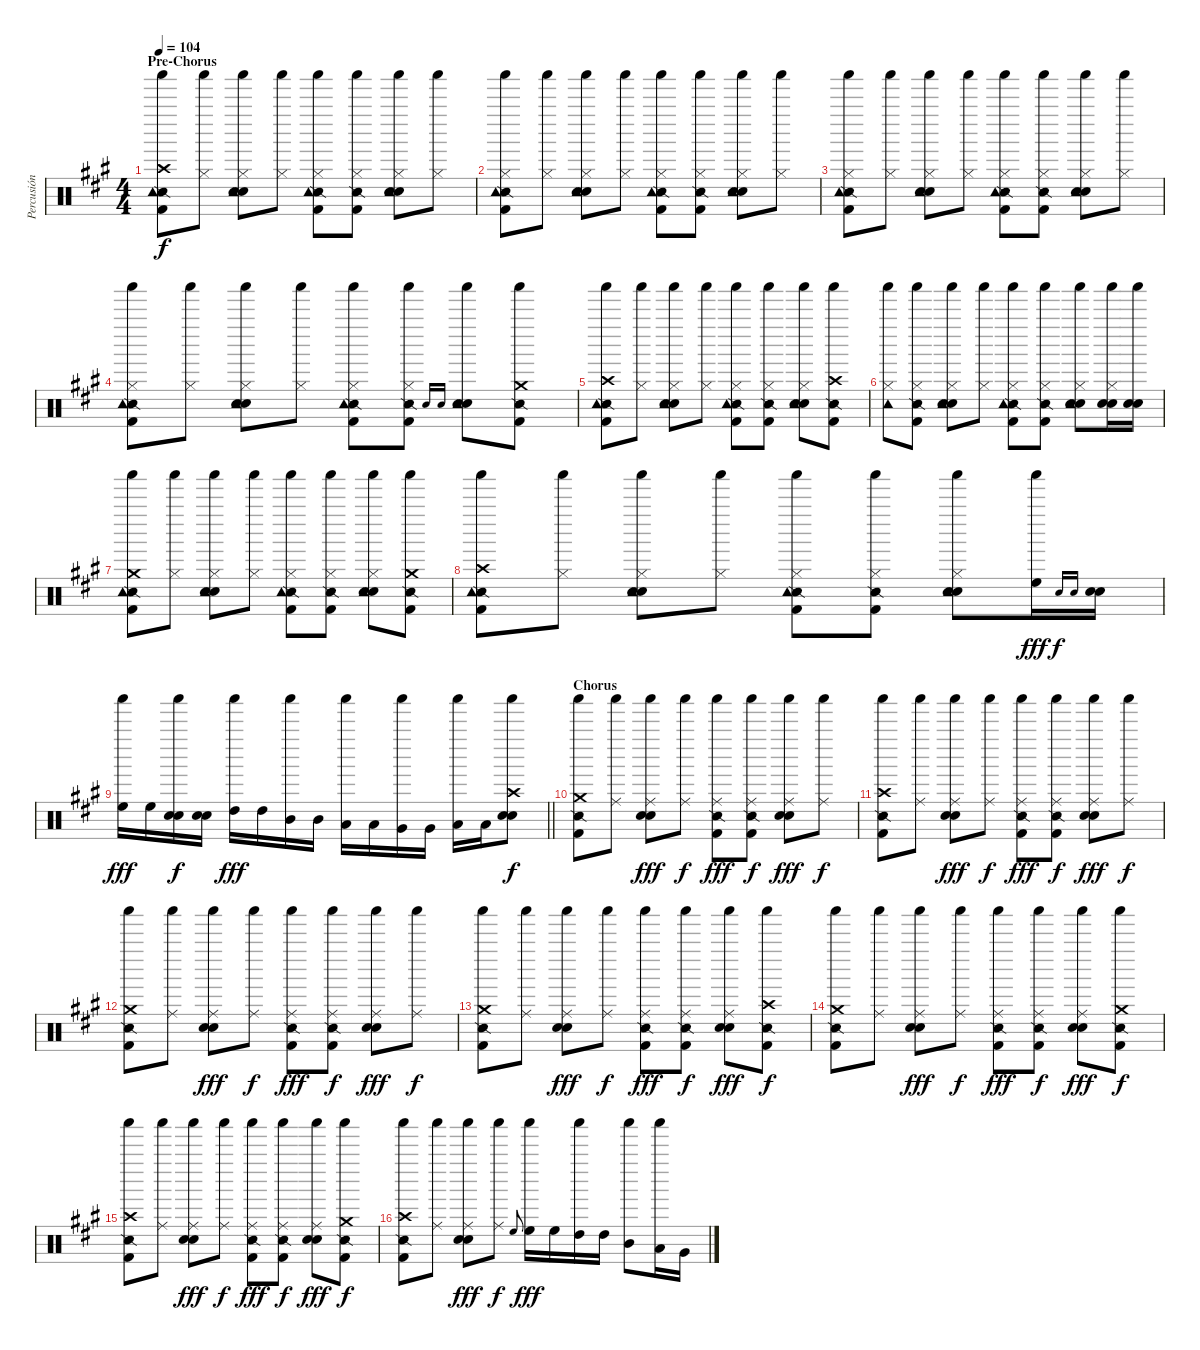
\track ("Percusión" "Percusión") {instrument percussion}
\staff {score}
\articulation defaults
\ts (4 4)
\section ("" "Pre-Chorus")
\tempo 104
\clef neutral
\ks a
("Crash high (hit)" "Kick (hit) 2" "Snare (side stick) 2" "Tambourine (hit)" "Shaker (hit)").8{dy f} ("Hi-Hat (closed)" "Shaker (hit)").8 ("Hi-Hat (closed)" "Snare (hit) 2" "Electric Snare (hit)" "Tambourine (hit)" "Shaker (hit)").8 ("Hi-Hat (closed)" "Shaker (hit)").8 ("Hi-Hat (closed)" "Kick (hit) 2" "Snare (side stick) 2" "Tambourine (hit)" "Shaker (hit)").8 ("Hi-Hat (closed)" "Kick (hit) 2" "Snare (side stick) 2" "Shaker (hit)").8 ("Hi-Hat (closed)" "Snare (hit) 2" "Electric Snare (hit)" "Tambourine (hit)" "Shaker (hit)").8 ("Hi-Hat (closed)" "Shaker (hit)").8 |
("Hi-Hat (closed)" "Kick (hit) 2" "Snare (side stick) 2" "Tambourine (hit)" "Shaker (hit)").8 ("Hi-Hat (closed)" "Shaker (hit)").8 ("Hi-Hat (closed)" "Snare (hit) 2" "Electric Snare (hit)" "Tambourine (hit)" "Shaker (hit)").8 ("Hi-Hat (closed)" "Shaker (hit)").8 ("Hi-Hat (closed)" "Kick (hit) 2" "Snare (side stick) 2" "Tambourine (hit)" "Shaker (hit)").8 ("Hi-Hat (closed)" "Kick (hit) 2" "Snare (side stick) 2" "Shaker (hit)").8 ("Hi-Hat (closed)" "Snare (hit) 2" "Electric Snare (hit)" "Tambourine (hit)" "Shaker (hit)").8 ("Hi-Hat (closed)" "Shaker (hit)").8 |
("Hi-Hat (closed)" "Kick (hit) 2" "Snare (side stick) 2" "Tambourine (hit)" "Shaker (hit)").8 ("Hi-Hat (closed)" "Shaker (hit)").8 ("Hi-Hat (closed)" "Snare (hit) 2" "Electric Snare (hit)" "Tambourine (hit)" "Shaker (hit)").8 ("Hi-Hat (closed)" "Shaker (hit)").8 ("Hi-Hat (closed)" "Kick (hit) 2" "Snare (side stick) 2" "Tambourine (hit)" "Shaker (hit)").8 ("Hi-Hat (closed)" "Kick (hit) 2" "Snare (side stick) 2" "Shaker (hit)").8 ("Hi-Hat (closed)" "Snare (hit) 2" "Electric Snare (hit)" "Tambourine (hit)" "Shaker (hit)").8 ("Hi-Hat (closed)" "Shaker (hit)").8 |
("Hi-Hat (closed)" "Kick (hit) 2" "Snare (side stick) 2" "Tambourine (hit)" "Shaker (hit)").8 ("Hi-Hat (closed)" "Shaker (hit)").8 ("Hi-Hat (closed)" "Snare (hit) 2" "Electric Snare (hit)" "Tambourine (hit)" "Shaker (hit)").8 ("Hi-Hat (closed)" "Shaker (hit)").8 ("Hi-Hat (closed)" "Kick (hit) 2" "Snare (side stick) 2" "Tambourine (hit)" "Shaker (hit)").8 ("Hi-Hat (closed)" "Kick (hit) 2" "Snare (side stick) 2" "Shaker (hit)").8 "Snare (hit) 2".16{gr onbeat} "Electric Snare (hit)".16{gr onbeat} ("Snare (hit) 2" "Electric Snare (hit)" "Tambourine (hit)" "Shaker (hit)").8 ("Crash medium (hit)" "Kick (hit) 2" "Snare (side stick) 2" "Shaker (hit)").8 |
("Crash high (hit)" "Kick (hit) 2" "Snare (side stick) 2" "Tambourine (hit)" "Shaker (hit)").8 ("Hi-Hat (closed)" "Shaker (hit)").8 ("Hi-Hat (closed)" "Snare (hit) 2" "Electric Snare (hit)" "Tambourine (hit)" "Shaker (hit)").8 ("Hi-Hat (closed)" "Shaker (hit)").8 ("Hi-Hat (closed)" "Kick (hit) 2" "Snare (side stick) 2" "Tambourine (hit)" "Shaker (hit)").8 ("Hi-Hat (closed)" "Kick (hit) 2" "Snare (side stick) 2" "Shaker (hit)").8 ("Hi-Hat (closed)" "Snare (hit) 2" "Electric Snare (hit)" "Tambourine (hit)" "Shaker (hit)").8 ("Crash high (hit)" "Kick (hit) 2" "Snare (side stick) 2" "Shaker (hit)").8 |
("Hi-Hat (closed)" "Tambourine (hit)" "Shaker (hit)").8 ("Hi-Hat (closed)" "Kick (hit) 2" "Snare (side stick) 2" "Shaker (hit)").8 ("Hi-Hat (closed)" "Snare (hit) 2" "Electric Snare (hit)" "Tambourine (hit)" "Shaker (hit)").8 ("Hi-Hat (closed)" "Shaker (hit)").8 ("Hi-Hat (closed)" "Kick (hit) 2" "Snare (side stick) 2" "Tambourine (hit)" "Shaker (hit)").8 ("Hi-Hat (closed)" "Kick (hit) 2" "Snare (side stick) 2" "Shaker (hit)").8 ("Hi-Hat (closed)" "Snare (hit) 2" "Electric Snare (hit)" "Tambourine (hit)" "Shaker (hit)").8 ("Hi-Hat (closed)" "Snare (hit) 2" "Electric Snare (hit)" "Shaker (hit)").16 ("Snare (hit) 2" "Electric Snare (hit)" "Shaker (hit)").16 |
("Crash medium (hit)" "Kick (hit) 2" "Snare (side stick) 2" "Tambourine (hit)" "Shaker (hit)").8 ("Hi-Hat (closed)" "Shaker (hit)").8 ("Hi-Hat (closed)" "Snare (hit) 2" "Electric Snare (hit)" "Tambourine (hit)" "Shaker (hit)").8 ("Hi-Hat (closed)" "Shaker (hit)").8 ("Hi-Hat (closed)" "Kick (hit) 2" "Snare (side stick) 2" "Tambourine (hit)" "Shaker (hit)").8 ("Hi-Hat (closed)" "Kick (hit) 2" "Snare (side stick) 2" "Shaker (hit)").8 ("Hi-Hat (closed)" "Snare (hit) 2" "Electric Snare (hit)" "Tambourine (hit)" "Shaker (hit)").8 ("Crash medium (hit)" "Kick (hit) 2" "Snare (side stick) 2" "Shaker (hit)").8 |
("Crash high (hit)" "Kick (hit) 2" "Snare (side stick) 2" "Tambourine (hit)" "Shaker (hit)").8 ("Hi-Hat (closed)" "Shaker (hit)").8 ("Hi-Hat (closed)" "Snare (hit) 2" "Electric Snare (hit)" "Tambourine (hit)" "Shaker (hit)").8 ("Hi-Hat (closed)" "Shaker (hit)").8 ("Hi-Hat (closed)" "Kick (hit) 2" "Snare (side stick) 2" "Tambourine (hit)" "Shaker (hit)").8 ("Hi-Hat (closed)" "Kick (hit) 2" "Snare (side stick) 2" "Shaker (hit)").8 ("Hi-Hat (closed)" "Snare (hit) 2" "Electric Snare (hit)" "Tambourine (hit)" "Shaker (hit)").8 ("High Floor Tom (hit)" "Shaker (hit)").16{dy fff} "Snare (hit) 2".16{gr onbeat dy f} "Electric Snare (hit)".16{gr onbeat} ("Snare (hit) 2" "Electric Snare (hit)").16 |
\barLineRight lightlight
("High Floor Tom (hit)" "Shaker (hit)").16{dy fff} "High Floor Tom (hit)".16 ("Snare (hit) 2" "Electric Snare (hit)" "Shaker (hit)").16{dy f} ("Snare (hit) 2" "Electric Snare (hit)").16 ("High Tom (hit)" "Shaker (hit)").16{dy fff} "High Tom (hit)".16 ("Mid Tom (hit)" "Shaker (hit)").16 "Mid Tom (hit)".16 ("Low Tom (hit)" "Shaker (hit)").16 "Low Tom (hit)".16 ("Very Low Tom (hit)" "Shaker (hit)").16 "Very Low Tom (hit)".16 ("Low Floor Tom (hit)" "Shaker (hit)").16 "Low Floor Tom (hit)".16 ("Crash high (hit)" "Snare (hit) 2" "Electric Snare (hit)" "Shaker (hit)").8{dy f} |
\section ("" "Chorus")
("Crash medium (hit)" "Kick (hit) 2" "Snare (side stick) 2" "Shaker (hit)").8 ("Ride (middle)" "Shaker (hit)").8 ("Ride (middle)" "Snare (hit) 2" "Electric Snare (hit)" "Shaker (hit)").8{dy fff} ("Ride (middle)" "Shaker (hit)").8{dy f} ("Ride (middle)" "Kick (hit) 2" "Snare (side stick) 2" "Shaker (hit)").8{dy fff} ("Ride (middle)" "Kick (hit) 2" "Snare (side stick) 2" "Shaker (hit)").8{dy f} ("Ride (middle)" "Snare (hit) 2" "Electric Snare (hit)" "Shaker (hit)").8{dy fff} ("Ride (middle)" "Shaker (hit)").8{dy f} |
("Crash high (hit)" "Kick (hit) 2" "Snare (side stick) 2" "Shaker (hit)").8 ("Ride (middle)" "Shaker (hit)").8 ("Ride (middle)" "Snare (hit) 2" "Electric Snare (hit)" "Shaker (hit)").8{dy fff} ("Ride (middle)" "Shaker (hit)").8{dy f} ("Ride (middle)" "Kick (hit) 2" "Snare (side stick) 2" "Shaker (hit)").8{dy fff} ("Ride (middle)" "Kick (hit) 2" "Snare (side stick) 2" "Shaker (hit)").8{dy f} ("Ride (middle)" "Snare (hit) 2" "Electric Snare (hit)" "Shaker (hit)").8{dy fff} ("Ride (middle)" "Shaker (hit)").8{dy f} |
("Crash medium (hit)" "Kick (hit) 2" "Snare (side stick) 2" "Shaker (hit)").8 ("Ride (middle)" "Shaker (hit)").8 ("Ride (middle)" "Snare (hit) 2" "Electric Snare (hit)" "Shaker (hit)").8{dy fff} ("Ride (middle)" "Shaker (hit)").8{dy f} ("Ride (middle)" "Kick (hit) 2" "Snare (side stick) 2" "Shaker (hit)").8{dy fff} ("Ride (middle)" "Kick (hit) 2" "Snare (side stick) 2" "Shaker (hit)").8{dy f} ("Ride (middle)" "Snare (hit) 2" "Electric Snare (hit)" "Shaker (hit)").8{dy fff} ("Ride (middle)" "Shaker (hit)").8{dy f} |
("Crash medium (hit)" "Kick (hit) 2" "Snare (side stick) 2" "Shaker (hit)").8 ("Ride (middle)" "Shaker (hit)").8 ("Ride (middle)" "Snare (hit) 2" "Electric Snare (hit)" "Shaker (hit)").8{dy fff} ("Ride (middle)" "Shaker (hit)").8{dy f} ("Ride (middle)" "Kick (hit) 2" "Snare (side stick) 2" "Shaker (hit)").8{dy fff} ("Ride (middle)" "Kick (hit) 2" "Snare (side stick) 2" "Shaker (hit)").8{dy f} ("Ride (middle)" "Snare (hit) 2" "Electric Snare (hit)" "Shaker (hit)").8{dy fff} ("Crash high (hit)" "Kick (hit) 2" "Snare (side stick) 2" "Shaker (hit)").8{dy f} |
("Crash medium (hit)" "Kick (hit) 2" "Snare (side stick) 2" "Shaker (hit)").8 ("Ride (middle)" "Shaker (hit)").8 ("Ride (middle)" "Snare (hit) 2" "Electric Snare (hit)" "Shaker (hit)").8{dy fff} ("Ride (middle)" "Shaker (hit)").8{dy f} ("Ride (middle)" "Kick (hit) 2" "Snare (side stick) 2" "Shaker (hit)").8{dy fff} ("Ride (middle)" "Kick (hit) 2" "Snare (side stick) 2" "Shaker (hit)").8{dy f} ("Ride (middle)" "Snare (hit) 2" "Electric Snare (hit)" "Shaker (hit)").8{dy fff} ("Crash medium (hit)" "Kick (hit) 2" "Snare (side stick) 2" "Shaker (hit)").8{dy f} |
("Crash high (hit)" "Kick (hit) 2" "Snare (side stick) 2" "Shaker (hit)").8 ("Ride (middle)" "Shaker (hit)").8 ("Ride (middle)" "Snare (hit) 2" "Electric Snare (hit)" "Shaker (hit)").8{dy fff} ("Ride (middle)" "Shaker (hit)").8{dy f} ("Ride (middle)" "Kick (hit) 2" "Snare (side stick) 2" "Shaker (hit)").8{dy fff} ("Ride (middle)" "Kick (hit) 2" "Snare (side stick) 2" "Shaker (hit)").8{dy f} ("Ride (middle)" "Snare (hit) 2" "Electric Snare (hit)" "Shaker (hit)").8{dy fff} ("Crash medium (hit)" "Kick (hit) 2" "Snare (side stick) 2" "Shaker (hit)").8{dy f} |
("Crash high (hit)" "Kick (hit) 2" "Snare (side stick) 2" "Shaker (hit)").8 ("Ride (middle)" "Shaker (hit)").8 ("Ride (middle)" "Snare (hit) 2" "Electric Snare (hit)" "Shaker (hit)").8{dy fff} ("Ride (middle)" "Shaker (hit)").8{dy f} "High Floor Tom (hit)".8{gr onbeat} ("High Floor Tom (hit)" "Shaker (hit)").16{dy fff} "High Floor Tom (hit)".16 ("High Tom (hit)" "Shaker (hit)").16 "High Tom (hit)".16 ("Mid Tom (hit)" "Shaker (hit)").8 ("Low Tom (hit)" "Shaker (hit)").16 "Very Low Tom (hit)".16
